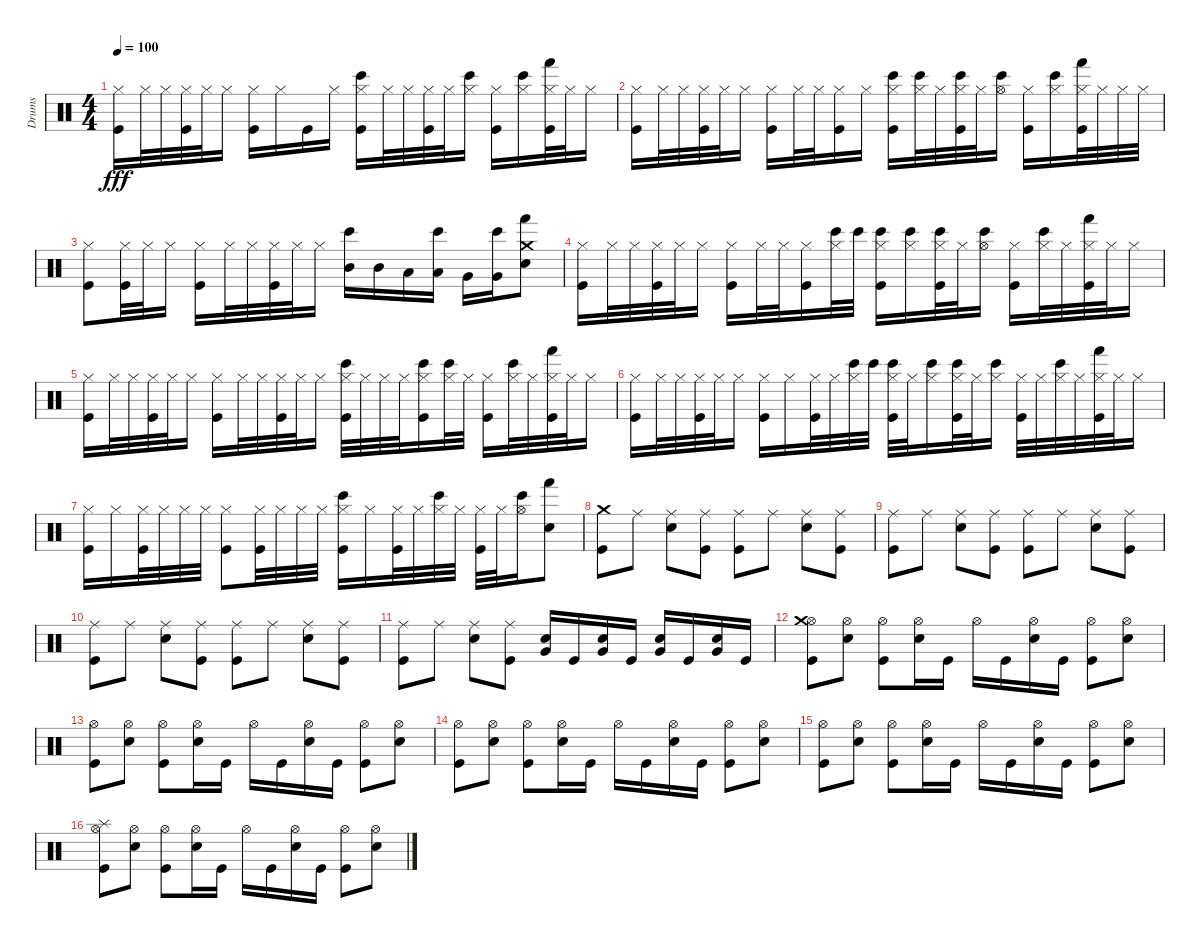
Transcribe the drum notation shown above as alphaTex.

\track ("Drums" "Drums") {instrument percussion}
\staff {score}
\articulation defaults
\ts (4 4)
\tempo 100
\clef neutral
\ks c
("Kick (hit)" "Hi-Hat (closed)").16{dy fff} "Hi-Hat (closed)".32 "Hi-Hat (closed)".32 ("Kick (hit)" "Hi-Hat (closed)").32 "Hi-Hat (closed)".32 "Hi-Hat (closed)".16 ("Kick (hit)" "Hi-Hat (closed)").16 "Hi-Hat (closed)".16 "Kick (hit)".16 "Hi-Hat (closed)".16 ("Kick (hit)" "Bongo High (hit)" "Hi-Hat (closed)").16 "Hi-Hat (closed)".32 "Hi-Hat (closed)".32 ("Kick (hit)" "Hi-Hat (closed)").32 "Hi-Hat (closed)".32 ("Bongo High (hit)" "Hi-Hat (closed)").16 ("Kick (hit)" "Hi-Hat (closed)").16 ("Bongo High (hit)" "Hi-Hat (closed)").16 ("Kick (hit)" "Hand (hit)" "Hi-Hat (closed)").32 "Hi-Hat (closed)".32 "Hi-Hat (closed)".16 |
("Kick (hit)" "Hi-Hat (closed)").16 "Hi-Hat (closed)".32 "Hi-Hat (closed)".32 ("Kick (hit)" "Hi-Hat (closed)").32 "Hi-Hat (closed)".32 "Hi-Hat (closed)".16 ("Kick (hit)" "Hi-Hat (closed)").16 "Hi-Hat (closed)".32 "Hi-Hat (closed)".32 ("Kick (hit)" "Hi-Hat (closed)").16 "Hi-Hat (closed)".16 ("Kick (hit)" "Bongo High (hit)" "Hi-Hat (closed)").16 ("Bongo High (hit)" "Hi-Hat (closed)").32 "Hi-Hat (closed)".32 ("Kick (hit)" "Bongo High (hit)" "Hi-Hat (closed)").32 "Hi-Hat (closed)".32 ("Bongo High (hit)" "Hi-Hat (open)").16 ("Kick (hit)" "Hi-Hat (closed)").16 ("Bongo High (hit)" "Hi-Hat (closed)").16 ("Kick (hit)" "Hand (hit)" "Hi-Hat (closed)").32 "Hi-Hat (closed)".32 "Hi-Hat (closed)".32 "Hi-Hat (closed)".32 |
("Kick (hit)" "Hi-Hat (closed)").8 ("Kick (hit)" "Hi-Hat (closed)").32 "Hi-Hat (closed)".32 "Hi-Hat (closed)".16 ("Kick (hit)" "Hi-Hat (closed)").16 "Hi-Hat (closed)".32 "Hi-Hat (closed)".32 ("Kick (hit)" "Hi-Hat (closed)").32 "Hi-Hat (closed)".32 "Hi-Hat (closed)".16 ("Mid Tom (hit)" "Bongo High (hit)").16 "Mid Tom (hit)".16 "Low Tom (hit)".16 ("Low Tom (hit)" "Bongo High (hit)").16 "Very Low Tom (hit)".16 ("Very Low Tom (hit)" "Bongo High (hit)").16 ("Snare (hit) 2" "Crash medium (hit)" "Hand (hit)").8 |
("Kick (hit)" "Hi-Hat (closed)").16 "Hi-Hat (closed)".32 "Hi-Hat (closed)".32 ("Kick (hit)" "Hi-Hat (closed)").32 "Hi-Hat (closed)".32 "Hi-Hat (closed)".16 ("Kick (hit)" "Hi-Hat (closed)").16 "Hi-Hat (closed)".32 "Hi-Hat (closed)".32 ("Kick (hit)" "Hi-Hat (closed)").16 ("Bongo High (hit)" "Hi-Hat (closed)").32 "Bongo High (hit)".32 ("Kick (hit)" "Bongo High (hit)" "Hi-Hat (closed)").16 ("Bongo High (hit)" "Hi-Hat (closed)").16 ("Kick (hit)" "Bongo High (hit)" "Hi-Hat (closed)").32 "Hi-Hat (closed)".32 ("Bongo High (hit)" "Hi-Hat (open)").16 ("Kick (hit)" "Hi-Hat (closed)").16 ("Bongo High (hit)" "Hi-Hat (closed)").32 "Hi-Hat (closed)".32 ("Kick (hit)" "Hand (hit)" "Hi-Hat (closed)").32 "Hi-Hat (closed)".32 "Hi-Hat (closed)".16 |
("Kick (hit)" "Hi-Hat (closed)").16 "Hi-Hat (closed)".32 "Hi-Hat (closed)".32 ("Kick (hit)" "Hi-Hat (closed)").32 "Hi-Hat (closed)".32 "Hi-Hat (closed)".16 ("Kick (hit)" "Hi-Hat (closed)").16 "Hi-Hat (closed)".32 "Hi-Hat (closed)".32 ("Kick (hit)" "Hi-Hat (closed)").32 "Hi-Hat (closed)".32 "Hi-Hat (closed)".16 ("Kick (hit)" "Hi-Hat (closed)" "Bongo High (hit)").32 "Hi-Hat (closed)".32 "Hi-Hat (closed)".32 "Hi-Hat (closed)".32 ("Kick (hit)" "Hi-Hat (closed)" "Bongo High (hit)").16 ("Hi-Hat (closed)" "Bongo High (hit)").32 "Hi-Hat (closed)".32 ("Kick (hit)" "Hi-Hat (closed)").16 ("Hi-Hat (closed)" "Bongo High (hit)").32 "Hi-Hat (closed)".32 ("Kick (hit)" "Hi-Hat (closed)" "Hand (hit)").32 "Hi-Hat (closed)".32 "Hi-Hat (closed)".16 |
("Kick (hit)" "Hi-Hat (closed)").16 "Hi-Hat (closed)".32 "Hi-Hat (closed)".32 ("Kick (hit)" "Hi-Hat (closed)").32 "Hi-Hat (closed)".32 "Hi-Hat (closed)".16 ("Kick (hit)" "Hi-Hat (closed)").16 "Hi-Hat (closed)".16 ("Kick (hit)" "Hi-Hat (closed)").32 "Hi-Hat (closed)".32 ("Hi-Hat (closed)" "Bongo High (hit)").32 "Bongo High (hit)".32 ("Kick (hit)" "Hi-Hat (closed)" "Bongo High (hit)").32 "Hi-Hat (closed)".32 ("Hi-Hat (closed)" "Bongo High (hit)").16 ("Kick (hit)" "Hi-Hat (closed)" "Bongo High (hit)").32 "Hi-Hat (closed)".32 ("Hi-Hat (closed)" "Bongo High (hit)").16 ("Kick (hit)" "Hi-Hat (closed)").32 "Hi-Hat (closed)".32 ("Hi-Hat (closed)" "Bongo High (hit)").32 "Hi-Hat (closed)".32 ("Kick (hit)" "Hi-Hat (closed)" "Hand (hit)").32 "Hi-Hat (closed)".32 "Hi-Hat (closed)".16 |
("Kick (hit)" "Hi-Hat (closed)").16 "Hi-Hat (closed)".16 ("Kick (hit)" "Hi-Hat (closed)").32 "Hi-Hat (closed)".32 "Hi-Hat (closed)".32 "Hi-Hat (closed)".32 ("Kick (hit)" "Hi-Hat (closed)").8 ("Kick (hit)" "Hi-Hat (closed)").32 "Hi-Hat (closed)".32 "Hi-Hat (closed)".32 "Hi-Hat (closed)".32 ("Kick (hit)" "Hi-Hat (closed)" "Bongo High (hit)").16 "Hi-Hat (closed)".16 ("Kick (hit)" "Hi-Hat (closed)").32 "Hi-Hat (closed)".32 ("Hi-Hat (closed)" "Bongo High (hit)").32 "Hi-Hat (closed)".32 ("Kick (hit)" "Hi-Hat (closed)").32 "Hi-Hat (closed)".32 ("Hi-Hat (open)" "Bongo High (hit)").16 ("Snare (hit) 2" "Hand (hit)").8 |
("Kick (hit)" "Crash medium (hit)").8 "Ride (middle)".8 ("Snare (hit) 2" "Ride (middle)").8 ("Kick (hit)" "Ride (middle)").8 ("Kick (hit)" "Ride (middle)").8 "Ride (middle)".8 ("Snare (hit) 2" "Ride (middle)").8 ("Kick (hit)" "Ride (middle)").8 |
("Kick (hit)" "Ride (middle)").8 "Ride (middle)".8 ("Snare (hit) 2" "Ride (middle)").8 ("Kick (hit)" "Ride (middle)").8 ("Kick (hit)" "Ride (middle)").8 "Ride (middle)".8 ("Snare (hit) 2" "Ride (middle)").8 ("Kick (hit)" "Ride (middle)").8 |
("Kick (hit)" "Ride (middle)").8 "Ride (middle)".8 ("Snare (hit) 2" "Ride (middle)").8 ("Kick (hit)" "Ride (middle)").8 ("Kick (hit)" "Ride (middle)").8 "Ride (middle)".8 ("Snare (hit) 2" "Ride (middle)").8 ("Kick (hit)" "Ride (middle)").8 |
("Kick (hit)" "Ride (middle)").8 "Ride (middle)".8 ("Snare (hit) 2" "Ride (middle)").8 ("Kick (hit)" "Ride (middle)").8 ("Snare (hit) 2" "Very Low Tom (hit)").16 "Kick (hit)".16 ("Snare (hit) 2" "Very Low Tom (hit)").16 "Kick (hit)".16 ("Snare (hit) 2" "Very Low Tom (hit)").16 "Kick (hit)".16 ("Snare (hit) 2" "Very Low Tom (hit)").16 "Kick (hit)".16 |
("Hi-Hat (open)" "Kick (hit)" "Crash medium (hit)").8 ("Hi-Hat (open)" "Snare (hit) 2").8 ("Hi-Hat (open)" "Kick (hit)").8 ("Hi-Hat (open)" "Snare (hit) 2").16 "Kick (hit)".16 "Hi-Hat (open)".16 "Kick (hit)".16 ("Hi-Hat (open)" "Snare (hit) 2").16 "Kick (hit)".16 ("Hi-Hat (open)" "Kick (hit)").8 ("Hi-Hat (open)" "Snare (hit) 2").8 |
("Hi-Hat (open)" "Kick (hit)").8 ("Hi-Hat (open)" "Snare (hit) 2").8 ("Hi-Hat (open)" "Kick (hit)").8 ("Hi-Hat (open)" "Snare (hit) 2").16 "Kick (hit)".16 "Hi-Hat (open)".16 "Kick (hit)".16 ("Hi-Hat (open)" "Snare (hit) 2").16 "Kick (hit)".16 ("Hi-Hat (open)" "Kick (hit)").8 ("Hi-Hat (open)" "Snare (hit) 2").8 |
("Hi-Hat (open)" "Kick (hit)").8 ("Hi-Hat (open)" "Snare (hit) 2").8 ("Hi-Hat (open)" "Kick (hit)").8 ("Hi-Hat (open)" "Snare (hit) 2").16 "Kick (hit)".16 "Hi-Hat (open)".16 "Kick (hit)".16 ("Hi-Hat (open)" "Snare (hit) 2").16 "Kick (hit)".16 ("Hi-Hat (open)" "Kick (hit)").8 ("Hi-Hat (open)" "Snare (hit) 2").8 |
("Hi-Hat (open)" "Kick (hit)").8 ("Hi-Hat (open)" "Snare (hit) 2").8 ("Hi-Hat (open)" "Kick (hit)").8 ("Hi-Hat (open)" "Snare (hit) 2").16 "Kick (hit)".16 "Hi-Hat (open)".16 "Kick (hit)".16 ("Hi-Hat (open)" "Snare (hit) 2").16 "Kick (hit)".16 ("Hi-Hat (open)" "Kick (hit)").8 ("Hi-Hat (open)" "Snare (hit) 2").8 |
("Hi-Hat (open)" "Kick (hit)" "Splash (hit)").8 ("Hi-Hat (open)" "Snare (hit) 2").8 ("Hi-Hat (open)" "Kick (hit)").8 ("Hi-Hat (open)" "Snare (hit) 2").16 "Kick (hit)".16 "Hi-Hat (open)".16 "Kick (hit)".16 ("Hi-Hat (open)" "Snare (hit) 2").16 "Kick (hit)".16 ("Hi-Hat (open)" "Kick (hit)").8 ("Hi-Hat (open)" "Snare (hit) 2").8
